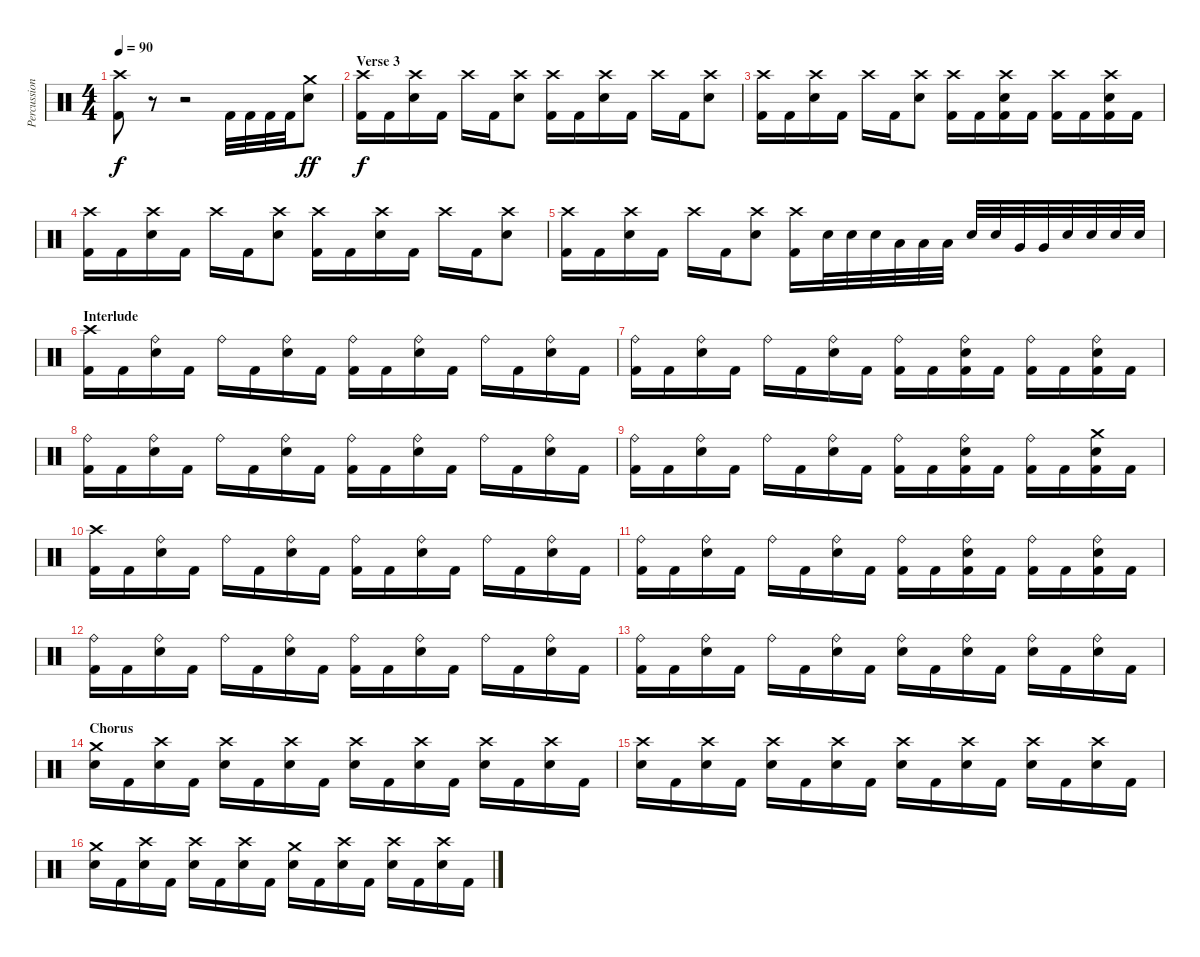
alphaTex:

\track ("Percussion" "Percussion") {instrument percussion}
\staff {score}
\articulation defaults
\ts (4 4)
\tempo 90
\clef neutral
\ks c
("Crash high (hit)" "Kick (hit) 2").8{dy f} r.8 r.2 "Kick (hit) 2".32 "Kick (hit) 2".32 "Kick (hit) 2".32 "Kick (hit) 2".32 ("Crash medium (hit)" "Electric Snare (hit)").8{dy ff} |
\section ("" "Verse 3")
("Crash high (hit)" "Kick (hit) 2").16{dy f} "Kick (hit) 2".16 ("Crash high (hit)" "Electric Snare (hit)").16 "Kick (hit) 2".16 "Crash high (hit)".16 "Kick (hit) 2".16 ("Crash high (hit)" "Electric Snare (hit)").8 ("Crash high (hit)" "Kick (hit) 2").16 "Kick (hit) 2".16 ("Crash high (hit)" "Electric Snare (hit)").16 "Kick (hit) 2".16 "Crash high (hit)".16 "Kick (hit) 2".16 ("Crash high (hit)" "Electric Snare (hit)").8 |
("Crash high (hit)" "Kick (hit) 2").16 "Kick (hit) 2".16 ("Crash high (hit)" "Electric Snare (hit)").16 "Kick (hit) 2".16 "Crash high (hit)".16 "Kick (hit) 2".16 ("Crash high (hit)" "Electric Snare (hit)").8 ("Crash high (hit)" "Kick (hit) 2").16 "Kick (hit) 2".16 ("Crash high (hit)" "Electric Snare (hit)" "Kick (hit) 2").16 "Kick (hit) 2".16 ("Crash high (hit)" "Kick (hit) 2").16 "Kick (hit) 2".16 ("Crash high (hit)" "Electric Snare (hit)" "Kick (hit) 2").16 "Kick (hit) 2".16 |
("Crash high (hit)" "Kick (hit) 2").16 "Kick (hit) 2".16 ("Crash high (hit)" "Electric Snare (hit)").16 "Kick (hit) 2".16 "Crash high (hit)".16 "Kick (hit) 2".16 ("Crash high (hit)" "Electric Snare (hit)").8 ("Crash high (hit)" "Kick (hit) 2").16 "Kick (hit) 2".16 ("Crash high (hit)" "Electric Snare (hit)").16 "Kick (hit) 2".16 "Crash high (hit)".16 "Kick (hit) 2".16 ("Crash high (hit)" "Electric Snare (hit)").8 |
("Crash high (hit)" "Kick (hit) 2").16 "Kick (hit) 2".16 ("Crash high (hit)" "Electric Snare (hit)").16 "Kick (hit) 2".16 "Crash high (hit)".16 "Kick (hit) 2".16 ("Crash high (hit)" "Electric Snare (hit)").8 ("Crash high (hit)" "Kick (hit) 2").16 "Electric Snare (hit)".32 "Electric Snare (hit)".32 "Electric Snare (hit)".32 "Low Tom (hit)".32 "Low Tom (hit)".32 "Low Tom (hit)".32 "Electric Snare (hit)".32 "Electric Snare (hit)".32 "Very Low Tom (hit)".32 "Very Low Tom (hit)".32 "Electric Snare (hit)".32 "Electric Snare (hit)".32 "Electric Snare (hit)".32 "Electric Snare (hit)".32 |
\section ("" "Interlude")
("Crash high (hit)" "Kick (hit) 2").16 "Kick (hit) 2".16 ("Ride (bell)" "Electric Snare (hit)").16 "Kick (hit) 2".16 "Ride (bell)".16 "Kick (hit) 2".16 ("Ride (bell)" "Electric Snare (hit)").16 "Kick (hit) 2".16 ("Ride (bell)" "Kick (hit) 2").16 "Kick (hit) 2".16 ("Ride (bell)" "Electric Snare (hit)").16 "Kick (hit) 2".16 "Ride (bell)".16 "Kick (hit) 2".16 ("Ride (bell)" "Electric Snare (hit)").16 "Kick (hit) 2".16 |
("Ride (bell)" "Kick (hit) 2").16 "Kick (hit) 2".16 ("Ride (bell)" "Electric Snare (hit)").16 "Kick (hit) 2".16 "Ride (bell)".16 "Kick (hit) 2".16 ("Ride (bell)" "Electric Snare (hit)").16 "Kick (hit) 2".16 ("Ride (bell)" "Kick (hit) 2").16 "Kick (hit) 2".16 ("Ride (bell)" "Electric Snare (hit)" "Kick (hit) 2").16 "Kick (hit) 2".16 ("Ride (bell)" "Kick (hit) 2").16 "Kick (hit) 2".16 ("Ride (bell)" "Electric Snare (hit)" "Kick (hit) 2").16 "Kick (hit) 2".16 |
("Ride (bell)" "Kick (hit) 2").16 "Kick (hit) 2".16 ("Ride (bell)" "Electric Snare (hit)").16 "Kick (hit) 2".16 "Ride (bell)".16 "Kick (hit) 2".16 ("Ride (bell)" "Electric Snare (hit)").16 "Kick (hit) 2".16 ("Ride (bell)" "Kick (hit) 2").16 "Kick (hit) 2".16 ("Ride (bell)" "Electric Snare (hit)").16 "Kick (hit) 2".16 "Ride (bell)".16 "Kick (hit) 2".16 ("Ride (bell)" "Electric Snare (hit)").16 "Kick (hit) 2".16 |
("Ride (bell)" "Kick (hit) 2").16 "Kick (hit) 2".16 ("Ride (bell)" "Electric Snare (hit)").16 "Kick (hit) 2".16 "Ride (bell)".16 "Kick (hit) 2".16 ("Ride (bell)" "Electric Snare (hit)").16 "Kick (hit) 2".16 ("Ride (bell)" "Kick (hit) 2").16 "Kick (hit) 2".16 ("Ride (bell)" "Electric Snare (hit)" "Kick (hit) 2").16 "Kick (hit) 2".16 ("Ride (bell)" "Kick (hit) 2").16 "Kick (hit) 2".16 ("Crash medium (hit)" "Electric Snare (hit)" "Kick (hit) 2").16 "Kick (hit) 2".16 |
("Crash high (hit)" "Kick (hit) 2").16 "Kick (hit) 2".16 ("Ride (bell)" "Electric Snare (hit)").16 "Kick (hit) 2".16 "Ride (bell)".16 "Kick (hit) 2".16 ("Ride (bell)" "Electric Snare (hit)").16 "Kick (hit) 2".16 ("Ride (bell)" "Kick (hit) 2").16 "Kick (hit) 2".16 ("Ride (bell)" "Electric Snare (hit)").16 "Kick (hit) 2".16 "Ride (bell)".16 "Kick (hit) 2".16 ("Ride (bell)" "Electric Snare (hit)").16 "Kick (hit) 2".16 |
("Ride (bell)" "Kick (hit) 2").16 "Kick (hit) 2".16 ("Ride (bell)" "Electric Snare (hit)").16 "Kick (hit) 2".16 "Ride (bell)".16 "Kick (hit) 2".16 ("Ride (bell)" "Electric Snare (hit)").16 "Kick (hit) 2".16 ("Ride (bell)" "Kick (hit) 2").16 "Kick (hit) 2".16 ("Ride (bell)" "Electric Snare (hit)" "Kick (hit) 2").16 "Kick (hit) 2".16 ("Ride (bell)" "Kick (hit) 2").16 "Kick (hit) 2".16 ("Ride (bell)" "Electric Snare (hit)" "Kick (hit) 2").16 "Kick (hit) 2".16 |
("Ride (bell)" "Kick (hit) 2").16 "Kick (hit) 2".16 ("Ride (bell)" "Electric Snare (hit)").16 "Kick (hit) 2".16 "Ride (bell)".16 "Kick (hit) 2".16 ("Ride (bell)" "Electric Snare (hit)").16 "Kick (hit) 2".16 ("Ride (bell)" "Kick (hit) 2").16 "Kick (hit) 2".16 ("Ride (bell)" "Electric Snare (hit)").16 "Kick (hit) 2".16 "Ride (bell)".16 "Kick (hit) 2".16 ("Ride (bell)" "Electric Snare (hit)").16 "Kick (hit) 2".16 |
("Ride (bell)" "Kick (hit) 2").16 "Kick (hit) 2".16 ("Ride (bell)" "Electric Snare (hit)").16 "Kick (hit) 2".16 "Ride (bell)".16 "Kick (hit) 2".16 ("Ride (bell)" "Electric Snare (hit)").16 "Kick (hit) 2".16 ("Ride (bell)" "Electric Snare (hit)").16 "Kick (hit) 2".16 ("Ride (bell)" "Electric Snare (hit)").16 "Kick (hit) 2".16 ("Ride (bell)" "Electric Snare (hit)").16 "Kick (hit) 2".16 ("Ride (bell)" "Electric Snare (hit)").16 "Kick (hit) 2".16 |
\section ("" "Chorus")
("Crash medium (hit)" "Electric Snare (hit)").16 "Kick (hit) 2".16 ("Crash high (hit)" "Electric Snare (hit)").16 "Kick (hit) 2".16 ("Crash high (hit)" "Electric Snare (hit)").16 "Kick (hit) 2".16 ("Crash high (hit)" "Electric Snare (hit)").16 "Kick (hit) 2".16 ("Crash high (hit)" "Electric Snare (hit)").16 "Kick (hit) 2".16 ("Crash high (hit)" "Electric Snare (hit)").16 "Kick (hit) 2".16 ("Crash high (hit)" "Electric Snare (hit)").16 "Kick (hit) 2".16 ("Crash high (hit)" "Electric Snare (hit)").16 "Kick (hit) 2".16 |
("Crash high (hit)" "Electric Snare (hit)").16 "Kick (hit) 2".16 ("Crash high (hit)" "Electric Snare (hit)").16 "Kick (hit) 2".16 ("Crash high (hit)" "Electric Snare (hit)").16 "Kick (hit) 2".16 ("Crash high (hit)" "Electric Snare (hit)").16 "Kick (hit) 2".16 ("Crash high (hit)" "Electric Snare (hit)").16 "Kick (hit) 2".16 ("Crash high (hit)" "Electric Snare (hit)").16 "Kick (hit) 2".16 ("Crash high (hit)" "Electric Snare (hit)").16 "Kick (hit) 2".16 ("Crash high (hit)" "Electric Snare (hit)").16 "Kick (hit) 2".16 |
("Crash medium (hit)" "Electric Snare (hit)").16 "Kick (hit) 2".16 ("Crash high (hit)" "Electric Snare (hit)").16 "Kick (hit) 2".16 ("Crash high (hit)" "Electric Snare (hit)").16 "Kick (hit) 2".16 ("Crash high (hit)" "Electric Snare (hit)").16 "Kick (hit) 2".16 ("Crash medium (hit)" "Electric Snare (hit)").16 "Kick (hit) 2".16 ("Crash high (hit)" "Electric Snare (hit)").16 "Kick (hit) 2".16 ("Crash high (hit)" "Electric Snare (hit)").16 "Kick (hit) 2".16 ("Crash high (hit)" "Electric Snare (hit)").16 "Kick (hit) 2".16
